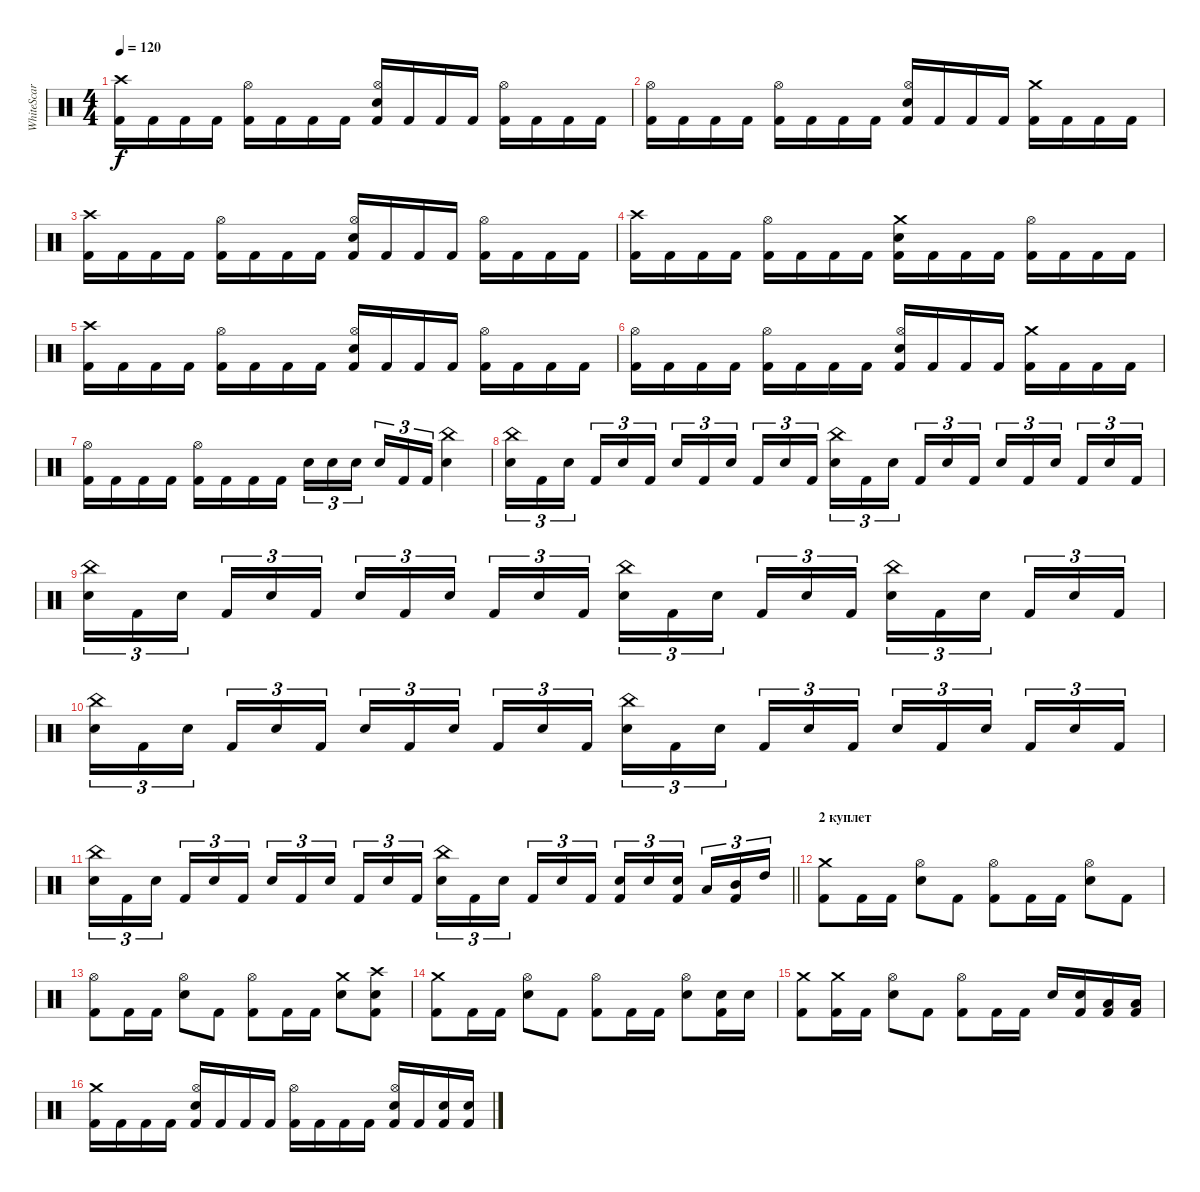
\track ("WhiteScar" "WhiteScar") {instrument percussion}
\staff {score}
\articulation defaults
\ts (4 4)
\tempo 120
\clef neutral
\ks c
("Crash high (hit)" "Kick (hit) 2").16{dy f} "Kick (hit) 2".16 "Kick (hit) 2".16 "Kick (hit) 2".16 ("Hi-Hat (open)" "Kick (hit) 2").16 "Kick (hit) 2".16 "Kick (hit) 2".16 "Kick (hit) 2".16 ("Hi-Hat (open)" "Snare (hit) 2" "Kick (hit) 2").16 "Kick (hit) 2".16 "Kick (hit) 2".16 "Kick (hit) 2".16 ("Hi-Hat (open)" "Kick (hit) 2").16 "Kick (hit) 2".16 "Kick (hit) 2".16 "Kick (hit) 2".16 |
("Hi-Hat (open)" "Kick (hit) 2").16 "Kick (hit) 2".16 "Kick (hit) 2".16 "Kick (hit) 2".16 ("Hi-Hat (open)" "Kick (hit) 2").16 "Kick (hit) 2".16 "Kick (hit) 2".16 "Kick (hit) 2".16 ("Hi-Hat (open)" "Snare (hit) 2" "Kick (hit) 2").16 "Kick (hit) 2".16 "Kick (hit) 2".16 "Kick (hit) 2".16 ("Crash medium (hit)" "Kick (hit) 2").16 "Kick (hit) 2".16 "Kick (hit) 2".16 "Kick (hit) 2".16 |
("Crash high (hit)" "Kick (hit) 2").16 "Kick (hit) 2".16 "Kick (hit) 2".16 "Kick (hit) 2".16 ("Hi-Hat (open)" "Kick (hit) 2").16 "Kick (hit) 2".16 "Kick (hit) 2".16 "Kick (hit) 2".16 ("Hi-Hat (open)" "Snare (hit) 2" "Kick (hit) 2").16 "Kick (hit) 2".16 "Kick (hit) 2".16 "Kick (hit) 2".16 ("Hi-Hat (open)" "Kick (hit) 2").16 "Kick (hit) 2".16 "Kick (hit) 2".16 "Kick (hit) 2".16 |
("Crash high (hit)" "Kick (hit) 2").16 "Kick (hit) 2".16 "Kick (hit) 2".16 "Kick (hit) 2".16 ("Hi-Hat (open)" "Kick (hit) 2").16 "Kick (hit) 2".16 "Kick (hit) 2".16 "Kick (hit) 2".16 ("Crash medium (hit)" "Snare (hit) 2" "Kick (hit) 2").16 "Kick (hit) 2".16 "Kick (hit) 2".16 "Kick (hit) 2".16 ("Hi-Hat (open)" "Kick (hit) 2").16 "Kick (hit) 2".16 "Kick (hit) 2".16 "Kick (hit) 2".16 |
("Crash high (hit)" "Kick (hit) 2").16 "Kick (hit) 2".16 "Kick (hit) 2".16 "Kick (hit) 2".16 ("Hi-Hat (open)" "Kick (hit) 2").16 "Kick (hit) 2".16 "Kick (hit) 2".16 "Kick (hit) 2".16 ("Hi-Hat (open)" "Snare (hit) 2" "Kick (hit) 2").16 "Kick (hit) 2".16 "Kick (hit) 2".16 "Kick (hit) 2".16 ("Hi-Hat (open)" "Kick (hit) 2").16 "Kick (hit) 2".16 "Kick (hit) 2".16 "Kick (hit) 2".16 |
("Hi-Hat (open)" "Kick (hit) 2").16 "Kick (hit) 2".16 "Kick (hit) 2".16 "Kick (hit) 2".16 ("Hi-Hat (open)" "Kick (hit) 2").16 "Kick (hit) 2".16 "Kick (hit) 2".16 "Kick (hit) 2".16 ("Hi-Hat (open)" "Snare (hit) 2" "Kick (hit) 2").16 "Kick (hit) 2".16 "Kick (hit) 2".16 "Kick (hit) 2".16 ("Crash medium (hit)" "Kick (hit) 2").16 "Kick (hit) 2".16 "Kick (hit) 2".16 "Kick (hit) 2".16 |
("Hi-Hat (open)" "Kick (hit) 2").16 "Kick (hit) 2".16 "Kick (hit) 2".16 "Kick (hit) 2".16 ("Hi-Hat (open)" "Kick (hit) 2").16 "Kick (hit) 2".16 "Kick (hit) 2".16 "Kick (hit) 2".16 "Snare (hit) 2".16{tu (3 2)} "Snare (hit) 2".16{tu (3 2)} "Snare (hit) 2".16{tu (3 2) beam splitsecondary} "Snare (hit) 2".16{tu (3 2)} "Kick (hit) 2".16{tu (3 2)} "Kick (hit) 2".16{tu (3 2)} ("China (hit)" "Snare (hit) 2").4 |
("China (hit)" "Snare (hit) 2").16{tu (3 2)} "Kick (hit) 2".16{tu (3 2)} "Snare (hit) 2".16{tu (3 2) beam splitsecondary} "Kick (hit) 2".16{tu (3 2)} "Snare (hit) 2".16{tu (3 2)} "Kick (hit) 2".16{tu (3 2)} "Snare (hit) 2".16{tu (3 2)} "Kick (hit) 2".16{tu (3 2)} "Snare (hit) 2".16{tu (3 2) beam splitsecondary} "Kick (hit) 2".16{tu (3 2)} "Snare (hit) 2".16{tu (3 2)} "Kick (hit) 2".16{tu (3 2)} ("China (hit)" "Snare (hit) 2").16{tu (3 2)} "Kick (hit) 2".16{tu (3 2)} "Snare (hit) 2".16{tu (3 2) beam splitsecondary} "Kick (hit) 2".16{tu (3 2)} "Snare (hit) 2".16{tu (3 2)} "Kick (hit) 2".16{tu (3 2)} "Snare (hit) 2".16{tu (3 2)} "Kick (hit) 2".16{tu (3 2)} "Snare (hit) 2".16{tu (3 2) beam splitsecondary} "Kick (hit) 2".16{tu (3 2)} "Snare (hit) 2".16{tu (3 2)} "Kick (hit) 2".16{tu (3 2)} |
("China (hit)" "Snare (hit) 2").16{tu (3 2)} "Kick (hit) 2".16{tu (3 2)} "Snare (hit) 2".16{tu (3 2) beam splitsecondary} "Kick (hit) 2".16{tu (3 2)} "Snare (hit) 2".16{tu (3 2)} "Kick (hit) 2".16{tu (3 2)} "Snare (hit) 2".16{tu (3 2)} "Kick (hit) 2".16{tu (3 2)} "Snare (hit) 2".16{tu (3 2) beam splitsecondary} "Kick (hit) 2".16{tu (3 2)} "Snare (hit) 2".16{tu (3 2)} "Kick (hit) 2".16{tu (3 2)} ("China (hit)" "Snare (hit) 2").16{tu (3 2)} "Kick (hit) 2".16{tu (3 2)} "Snare (hit) 2".16{tu (3 2) beam splitsecondary} "Kick (hit) 2".16{tu (3 2)} "Snare (hit) 2".16{tu (3 2)} "Kick (hit) 2".16{tu (3 2)} ("China (hit)" "Snare (hit) 2").16{tu (3 2)} "Kick (hit) 2".16{tu (3 2)} "Snare (hit) 2".16{tu (3 2) beam splitsecondary} "Kick (hit) 2".16{tu (3 2)} "Snare (hit) 2".16{tu (3 2)} "Kick (hit) 2".16{tu (3 2)} |
("China (hit)" "Snare (hit) 2").16{tu (3 2)} "Kick (hit) 2".16{tu (3 2)} "Snare (hit) 2".16{tu (3 2) beam splitsecondary} "Kick (hit) 2".16{tu (3 2)} "Snare (hit) 2".16{tu (3 2)} "Kick (hit) 2".16{tu (3 2)} "Snare (hit) 2".16{tu (3 2)} "Kick (hit) 2".16{tu (3 2)} "Snare (hit) 2".16{tu (3 2) beam splitsecondary} "Kick (hit) 2".16{tu (3 2)} "Snare (hit) 2".16{tu (3 2)} "Kick (hit) 2".16{tu (3 2)} ("China (hit)" "Snare (hit) 2").16{tu (3 2)} "Kick (hit) 2".16{tu (3 2)} "Snare (hit) 2".16{tu (3 2) beam splitsecondary} "Kick (hit) 2".16{tu (3 2)} "Snare (hit) 2".16{tu (3 2)} "Kick (hit) 2".16{tu (3 2)} "Snare (hit) 2".16{tu (3 2)} "Kick (hit) 2".16{tu (3 2)} "Snare (hit) 2".16{tu (3 2) beam splitsecondary} "Kick (hit) 2".16{tu (3 2)} "Snare (hit) 2".16{tu (3 2)} "Kick (hit) 2".16{tu (3 2)} |
\barLineRight lightlight
("China (hit)" "Snare (hit) 2").16{tu (3 2)} "Kick (hit) 2".16{tu (3 2)} "Snare (hit) 2".16{tu (3 2) beam splitsecondary} "Kick (hit) 2".16{tu (3 2)} "Snare (hit) 2".16{tu (3 2)} "Kick (hit) 2".16{tu (3 2)} "Snare (hit) 2".16{tu (3 2)} "Kick (hit) 2".16{tu (3 2)} "Snare (hit) 2".16{tu (3 2) beam splitsecondary} "Kick (hit) 2".16{tu (3 2)} "Snare (hit) 2".16{tu (3 2)} "Kick (hit) 2".16{tu (3 2)} ("China (hit)" "Snare (hit) 2").16{tu (3 2)} "Kick (hit) 2".16{tu (3 2)} "Snare (hit) 2".16{tu (3 2) beam splitsecondary} "Kick (hit) 2".16{tu (3 2)} "Snare (hit) 2".16{tu (3 2)} "Kick (hit) 2".16{tu (3 2)} ("Snare (hit) 2" "Kick (hit) 2").16{tu (3 2)} "Snare (hit) 2".16{tu (3 2)} ("Snare (hit) 2" "Kick (hit) 2").16{tu (3 2) beam splitsecondary} "Low Tom (hit)".16{tu (3 2)} ("Mid Tom (hit)" "Kick (hit) 2").16{tu (3 2)} "High Tom (hit)".16{tu (3 2)} |
\section ("" "2 куплет")
("Crash medium (hit)" "Kick (hit) 2").8 "Kick (hit) 2".16 "Kick (hit) 2".16 ("Hi-Hat (open)" "Snare (hit) 2").8 "Kick (hit) 2".8 ("Hi-Hat (open)" "Kick (hit) 2").8 "Kick (hit) 2".16 "Kick (hit) 2".16 ("Hi-Hat (open)" "Snare (hit) 2").8 "Kick (hit) 2".8 |
("Hi-Hat (open)" "Kick (hit) 2").8 "Kick (hit) 2".16 "Kick (hit) 2".16 ("Hi-Hat (open)" "Snare (hit) 2").8 "Kick (hit) 2".8 ("Hi-Hat (open)" "Kick (hit) 2").8 "Kick (hit) 2".16 "Kick (hit) 2".16 ("Crash medium (hit)" "Snare (hit) 2").8 ("Crash high (hit)" "Snare (hit) 2" "Kick (hit) 2").8 |
("Crash medium (hit)" "Kick (hit) 2").8 "Kick (hit) 2".16 "Kick (hit) 2".16 ("Hi-Hat (open)" "Snare (hit) 2").8 "Kick (hit) 2".8 ("Hi-Hat (open)" "Kick (hit) 2").8 "Kick (hit) 2".16 "Kick (hit) 2".16 ("Hi-Hat (open)" "Snare (hit) 2").8 ("Snare (hit) 2" "Kick (hit) 2").16 "Snare (hit) 2".16 |
("Crash medium (hit)" "Kick (hit) 2").8 ("Crash medium (hit)" "Kick (hit) 2").16 "Kick (hit) 2".16 ("Hi-Hat (open)" "Snare (hit) 2").8 "Kick (hit) 2".8 ("Hi-Hat (open)" "Kick (hit) 2").8 "Kick (hit) 2".16 "Kick (hit) 2".16 "Snare (hit) 2".16 ("Snare (hit) 2" "Kick (hit) 2").16 ("Low Tom (hit)" "Kick (hit) 2").16 ("Low Tom (hit)" "Kick (hit) 2").16 |
("Crash medium (hit)" "Kick (hit) 2").16 "Kick (hit) 2".16 "Kick (hit) 2".16 "Kick (hit) 2".16 ("Snare (hit) 2" "Hi-Hat (open)" "Kick (hit) 2").16 "Kick (hit) 2".16 "Kick (hit) 2".16 "Kick (hit) 2".16 ("Hi-Hat (open)" "Kick (hit) 2").16 "Kick (hit) 2".16 "Kick (hit) 2".16 "Kick (hit) 2".16 ("Snare (hit) 2" "Hi-Hat (open)" "Kick (hit) 2").16 "Kick (hit) 2".16 ("Snare (hit) 2" "Kick (hit) 2").16 ("Snare (hit) 2" "Kick (hit) 2").16
